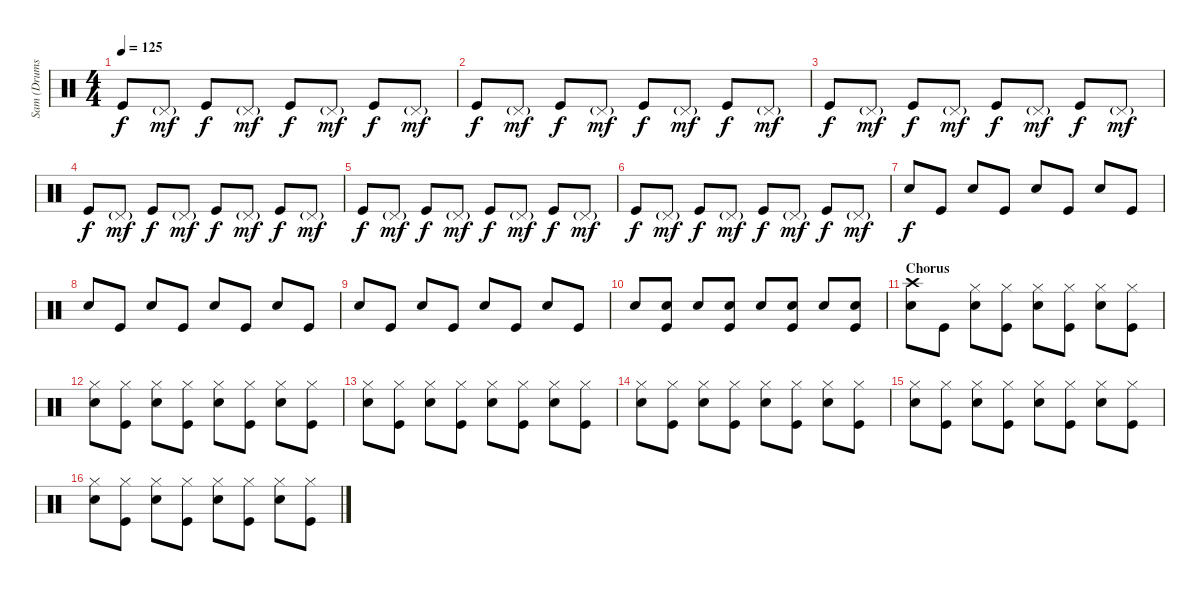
\track ("Sam (Drums)" "Sam (Drums") {instrument percussion}
\staff {score}
\articulation defaults
\ts (4 4)
\tempo 125
\clef neutral
\ks c "Kick (hit)".8{dy f} "Pedal Hi-Hat (hit)"{g}.8{dy mf} "Kick (hit)".8{dy f} "Pedal Hi-Hat (hit)"{g}.8{dy mf} "Kick (hit)".8{dy f} "Pedal Hi-Hat (hit)"{g}.8{dy mf} "Kick (hit)".8{dy f} "Pedal Hi-Hat (hit)"{g}.8{dy mf}
|
"Kick (hit)".8{dy f} "Pedal Hi-Hat (hit)"{g}.8{dy mf} "Kick (hit)".8{dy f} "Pedal Hi-Hat (hit)"{g}.8{dy mf} "Kick (hit)".8{dy f} "Pedal Hi-Hat (hit)"{g}.8{dy mf} "Kick (hit)".8{dy f} "Pedal Hi-Hat (hit)"{g}.8{dy mf} |
"Kick (hit)".8{dy f} "Pedal Hi-Hat (hit)"{g}.8{dy mf} "Kick (hit)".8{dy f} "Pedal Hi-Hat (hit)"{g}.8{dy mf} "Kick (hit)".8{dy f} "Pedal Hi-Hat (hit)"{g}.8{dy mf} "Kick (hit)".8{dy f} "Pedal Hi-Hat (hit)"{g}.8{dy mf} |
"Kick (hit)".8{dy f} "Pedal Hi-Hat (hit)"{g}.8{dy mf} "Kick (hit)".8{dy f} "Pedal Hi-Hat (hit)"{g}.8{dy mf} "Kick (hit)".8{dy f} "Pedal Hi-Hat (hit)"{g}.8{dy mf} "Kick (hit)".8{dy f} "Pedal Hi-Hat (hit)"{g}.8{dy mf} |
"Kick (hit)".8{dy f} "Pedal Hi-Hat (hit)"{g}.8{dy mf} "Kick (hit)".8{dy f} "Pedal Hi-Hat (hit)"{g}.8{dy mf} "Kick (hit)".8{dy f} "Pedal Hi-Hat (hit)"{g}.8{dy mf} "Kick (hit)".8{dy f} "Pedal Hi-Hat (hit)"{g}.8{dy mf} |
"Kick (hit)".8{dy f} "Pedal Hi-Hat (hit)"{g}.8{dy mf} "Kick (hit)".8{dy f} "Pedal Hi-Hat (hit)"{g}.8{dy mf} "Kick (hit)".8{dy f} "Pedal Hi-Hat (hit)"{g}.8{dy mf} "Kick (hit)".8{dy f} "Pedal Hi-Hat (hit)"{g}.8{dy mf} |
"Snare (hit) 2".8{dy f} "Kick (hit)".8 "Snare (hit) 2".8 "Kick (hit)".8 "Snare (hit) 2".8 "Kick (hit)".8 "Snare (hit) 2".8 "Kick (hit)".8 |
"Snare (hit) 2".8 "Kick (hit)".8 "Snare (hit) 2".8 "Kick (hit)".8 "Snare (hit) 2".8 "Kick (hit)".8 "Snare (hit) 2".8 "Kick (hit)".8 |
"Snare (hit) 2".8 "Kick (hit)".8 "Snare (hit) 2".8 "Kick (hit)".8 "Snare (hit) 2".8 "Kick (hit)".8 "Snare (hit) 2".8 "Kick (hit)".8 |
"Snare (hit) 2".8 ("Snare (hit) 2" "Kick (hit)").8 "Snare (hit) 2".8 ("Snare (hit) 2" "Kick (hit)").8 "Snare (hit) 2".8 ("Snare (hit) 2" "Kick (hit)").8 "Snare (hit) 2".8 ("Snare (hit) 2" "Kick (hit)").8 |
\section ("" "Chorus")
("Crash high (hit)" "Snare (hit) 2").8 "Kick (hit)".8 ("Hi-Hat (closed)" "Snare (hit) 2").8 ("Hi-Hat (closed)" "Kick (hit)").8 ("Hi-Hat (closed)" "Snare (hit) 2").8 ("Hi-Hat (closed)" "Kick (hit)").8 ("Hi-Hat (closed)" "Snare (hit) 2").8 ("Hi-Hat (closed)" "Kick (hit)").8 |
("Hi-Hat (closed)" "Snare (hit) 2").8 ("Hi-Hat (closed)" "Kick (hit)").8 ("Hi-Hat (closed)" "Snare (hit) 2").8 ("Hi-Hat (closed)" "Kick (hit)").8 ("Hi-Hat (closed)" "Snare (hit) 2").8 ("Hi-Hat (closed)" "Kick (hit)").8 ("Hi-Hat (closed)" "Snare (hit) 2").8 ("Hi-Hat (closed)" "Kick (hit)").8 |
("Hi-Hat (closed)" "Snare (hit) 2").8 ("Hi-Hat (closed)" "Kick (hit)").8 ("Hi-Hat (closed)" "Snare (hit) 2").8 ("Hi-Hat (closed)" "Kick (hit)").8 ("Hi-Hat (closed)" "Snare (hit) 2").8 ("Hi-Hat (closed)" "Kick (hit)").8 ("Hi-Hat (closed)" "Snare (hit) 2").8 ("Hi-Hat (closed)" "Kick (hit)").8 |
("Hi-Hat (closed)" "Snare (hit) 2").8 ("Hi-Hat (closed)" "Kick (hit)").8 ("Hi-Hat (closed)" "Snare (hit) 2").8 ("Hi-Hat (closed)" "Kick (hit)").8 ("Hi-Hat (closed)" "Snare (hit) 2").8 ("Hi-Hat (closed)" "Kick (hit)").8 ("Hi-Hat (closed)" "Snare (hit) 2").8 ("Hi-Hat (closed)" "Kick (hit)").8 |
("Hi-Hat (closed)" "Snare (hit) 2").8 ("Hi-Hat (closed)" "Kick (hit)").8 ("Hi-Hat (closed)" "Snare (hit) 2").8 ("Hi-Hat (closed)" "Kick (hit)").8 ("Hi-Hat (closed)" "Snare (hit) 2").8 ("Hi-Hat (closed)" "Kick (hit)").8 ("Hi-Hat (closed)" "Snare (hit) 2").8 ("Hi-Hat (closed)" "Kick (hit)").8 |
("Hi-Hat (closed)" "Snare (hit) 2").8 ("Hi-Hat (closed)" "Kick (hit)").8 ("Hi-Hat (closed)" "Snare (hit) 2").8 ("Hi-Hat (closed)" "Kick (hit)").8 ("Hi-Hat (closed)" "Snare (hit) 2").8 ("Hi-Hat (closed)" "Kick (hit)").8 ("Hi-Hat (closed)" "Snare (hit) 2").8 ("Hi-Hat (closed)" "Kick (hit)").8
